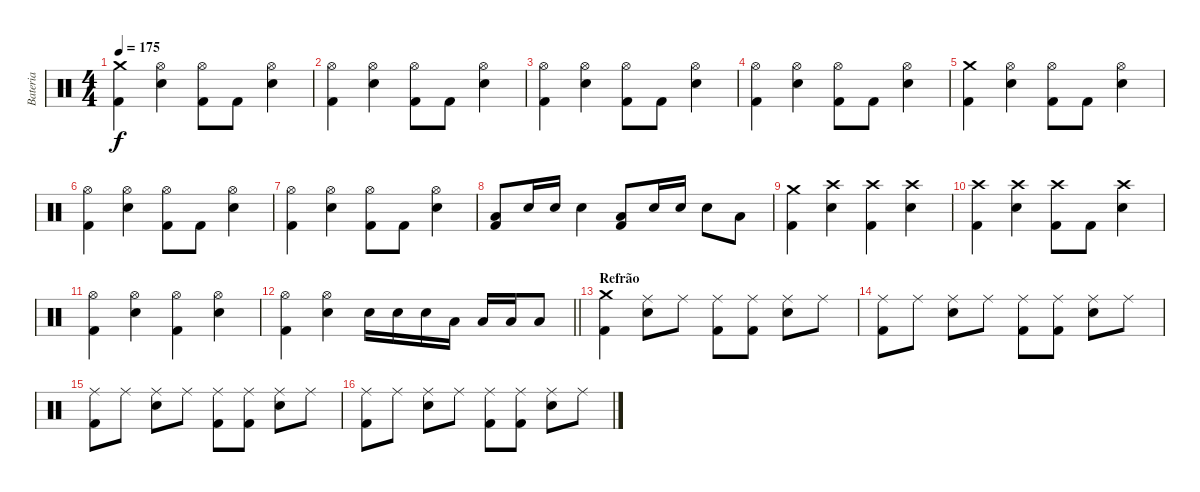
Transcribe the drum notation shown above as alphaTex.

\track ("Bateria" "Bateria") {instrument percussion}
\staff {score}
\articulation defaults
\ts (4 4)
\tempo 175
\clef neutral
\ks c
("Crash medium (hit)" "Kick (hit) 2").4{dy f} ("Hi-Hat (open)" "Electric Snare (hit)").4 ("Hi-Hat (open)" "Kick (hit) 2").8 "Kick (hit) 2".8 ("Hi-Hat (open)" "Electric Snare (hit)").4 |
("Hi-Hat (open)" "Kick (hit) 2").4 ("Hi-Hat (open)" "Electric Snare (hit)").4 ("Hi-Hat (open)" "Kick (hit) 2").8 "Kick (hit) 2".8 ("Hi-Hat (open)" "Electric Snare (hit)").4 |
("Hi-Hat (open)" "Kick (hit) 2").4 ("Hi-Hat (open)" "Electric Snare (hit)").4 ("Hi-Hat (open)" "Kick (hit) 2").8 "Kick (hit) 2".8 ("Hi-Hat (open)" "Electric Snare (hit)").4 |
("Hi-Hat (open)" "Kick (hit) 2").4 ("Hi-Hat (open)" "Electric Snare (hit)").4 ("Hi-Hat (open)" "Kick (hit) 2").8 "Kick (hit) 2".8 ("Hi-Hat (open)" "Electric Snare (hit)").4 |
("Crash medium (hit)" "Kick (hit) 2").4 ("Hi-Hat (open)" "Electric Snare (hit)").4 ("Hi-Hat (open)" "Kick (hit) 2").8 "Kick (hit) 2".8 ("Hi-Hat (open)" "Electric Snare (hit)").4 |
("Hi-Hat (open)" "Kick (hit) 2").4 ("Hi-Hat (open)" "Electric Snare (hit)").4 ("Hi-Hat (open)" "Kick (hit) 2").8 "Kick (hit) 2".8 ("Hi-Hat (open)" "Electric Snare (hit)").4 |
("Hi-Hat (open)" "Kick (hit) 2").4 ("Hi-Hat (open)" "Electric Snare (hit)").4 ("Hi-Hat (open)" "Kick (hit) 2").8 "Kick (hit) 2".8 ("Hi-Hat (open)" "Electric Snare (hit)").4 |
("Low Tom (hit)" "Kick (hit) 2").8 "Electric Snare (hit)".16 "Electric Snare (hit)".16 "Electric Snare (hit)".4 ("Low Tom (hit)" "Kick (hit) 2").8 "Electric Snare (hit)".16 "Electric Snare (hit)".16 "Electric Snare (hit)".8 "Low Tom (hit)".8 |
("Crash medium (hit)" "Kick (hit) 2").4 ("Crash high (hit)" "Electric Snare (hit)").4 ("Crash high (hit)" "Kick (hit) 2").4 ("Crash high (hit)" "Electric Snare (hit)").4 |
("Crash high (hit)" "Kick (hit) 2").4 ("Crash high (hit)" "Electric Snare (hit)").4 ("Crash high (hit)" "Kick (hit) 2").8 "Kick (hit) 2".8 ("Crash high (hit)" "Electric Snare (hit)").4 |
("Hi-Hat (open)" "Kick (hit) 2").4 ("Hi-Hat (open)" "Electric Snare (hit)").4 ("Hi-Hat (open)" "Kick (hit) 2").4 ("Hi-Hat (open)" "Electric Snare (hit)").4 |
\barLineRight lightlight
("Hi-Hat (open)" "Kick (hit) 2").4 ("Hi-Hat (open)" "Electric Snare (hit)").4 "Electric Snare (hit)".16 "Electric Snare (hit)".16 "Electric Snare (hit)".16 "Low Tom (hit)".16 "Low Tom (hit)".16 "Low Tom (hit)".16 "Low Floor Tom (hit)".8 |
\section ("" "Refrão")
("Crash medium (hit)" "Kick (hit) 2").4 ("Ride (middle)" "Electric Snare (hit)").8 "Ride (middle)".8 ("Ride (middle)" "Kick (hit) 2").8 ("Ride (middle)" "Kick (hit) 2").8 ("Ride (middle)" "Electric Snare (hit)").8 "Ride (middle)".8 |
("Ride (middle)" "Kick (hit) 2").8 "Ride (middle)".8 ("Ride (middle)" "Electric Snare (hit)").8 "Ride (middle)".8 ("Ride (middle)" "Kick (hit) 2").8 ("Ride (middle)" "Kick (hit) 2").8 ("Ride (middle)" "Electric Snare (hit)").8 "Ride (middle)".8 |
("Ride (middle)" "Kick (hit) 2").8 "Ride (middle)".8 ("Ride (middle)" "Electric Snare (hit)").8 "Ride (middle)".8 ("Ride (middle)" "Kick (hit) 2").8 ("Ride (middle)" "Kick (hit) 2").8 ("Ride (middle)" "Electric Snare (hit)").8 "Ride (middle)".8 |
("Ride (middle)" "Kick (hit) 2").8 "Ride (middle)".8 ("Ride (middle)" "Electric Snare (hit)").8 "Ride (middle)".8 ("Ride (middle)" "Kick (hit) 2").8 ("Ride (middle)" "Kick (hit) 2").8 ("Ride (middle)" "Electric Snare (hit)").8 "Ride (middle)".8
